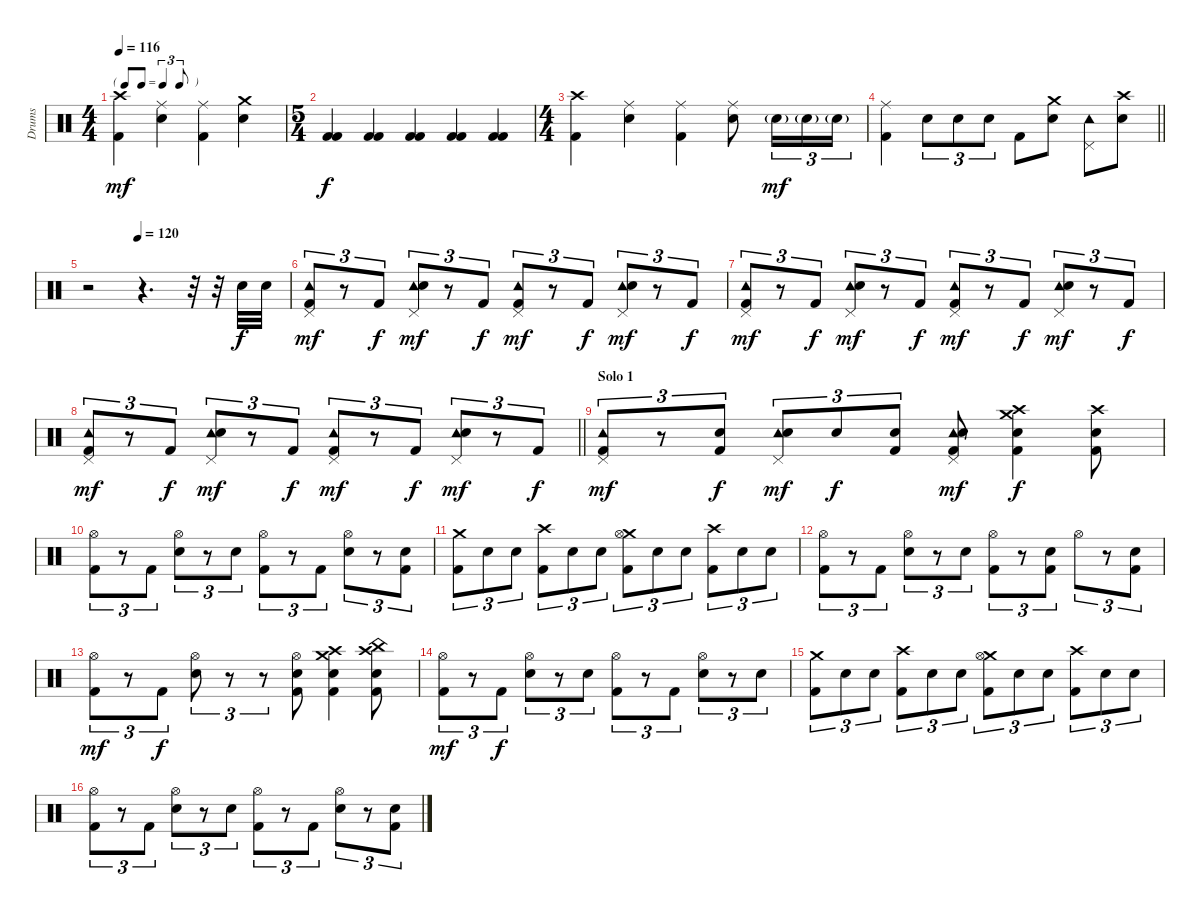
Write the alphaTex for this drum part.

\track ("Drums" "Drums") {instrument percussion}
\staff {score}
\articulation defaults
\ts (4 4)
\tf triplet8th
\tempo 116
\clef neutral
\ks c
("Crash high (hit)" "Kick (hit) 2").4{dy mf} ("Ride (middle)" "Snare (hit) 2").4 ("Ride (middle)" "Kick (hit) 2").4 ("Crash medium (hit)" "Snare (hit) 2").4 |
\ts (5 4)
("Kick (hit) 2" "Kick (hit) 2").4{dy f} ("Kick (hit) 2" "Kick (hit) 2").4 ("Kick (hit) 2" "Kick (hit) 2").4 ("Kick (hit) 2" "Kick (hit) 2").4 ("Kick (hit) 2" "Kick (hit) 2").4 |
\ts (4 4)
("Crash high (hit)" "Kick (hit) 2").4 ("Ride (middle)" "Snare (hit) 2").4 ("Ride (middle)" "Kick (hit) 2").4 ("Ride (middle)" "Snare (hit) 2").8 "Snare (hit) 2"{g}.16{tu (3 2) dy mf} "Snare (hit) 2"{g}.16{tu (3 2)} "Snare (hit) 2"{g}.16{tu (3 2)} |
\barLineRight lightlight
("Ride (middle)" "Kick (hit) 2").4 "Snare (hit) 2".8{tu (3 2)} "Snare (hit) 2".8{tu (3 2)} "Snare (hit) 2".8{tu (3 2)} "Kick (hit) 2".8 ("Crash medium (hit)" "Snare (hit) 2").8 ("Tambourine (hit)" "Pedal Hi-Hat (hit)").8 ("Crash high (hit)" "Snare (hit) 2").8 |
\tempo (120 0.25)
r.2 r.4{d} r.32 r.32 "Snare (hit) 2".32{dy f} "Snare (hit) 2".32 |
("Tambourine (hit)" "Pedal Hi-Hat (hit)" "Kick (hit) 2").8{tu (3 2) dy mf} r.8{tu (3 2)} "Kick (hit) 2".8{tu (3 2) dy f} ("Tambourine (hit)" "Pedal Hi-Hat (hit)" "Snare (hit) 2").8{tu (3 2) dy mf} r.8{tu (3 2)} "Kick (hit) 2".8{tu (3 2) dy f} ("Tambourine (hit)" "Pedal Hi-Hat (hit)" "Kick (hit) 2").8{tu (3 2) dy mf} r.8{tu (3 2)} "Kick (hit) 2".8{tu (3 2) dy f} ("Tambourine (hit)" "Pedal Hi-Hat (hit)" "Snare (hit) 2").8{tu (3 2) dy mf} r.8{tu (3 2)} "Kick (hit) 2".8{tu (3 2) dy f} |
("Tambourine (hit)" "Pedal Hi-Hat (hit)" "Kick (hit) 2").8{tu (3 2) dy mf} r.8{tu (3 2)} "Kick (hit) 2".8{tu (3 2) dy f} ("Tambourine (hit)" "Pedal Hi-Hat (hit)" "Snare (hit) 2").8{tu (3 2) dy mf} r.8{tu (3 2)} "Kick (hit) 2".8{tu (3 2) dy f} ("Tambourine (hit)" "Pedal Hi-Hat (hit)" "Kick (hit) 2").8{tu (3 2) dy mf} r.8{tu (3 2)} "Kick (hit) 2".8{tu (3 2) dy f} ("Tambourine (hit)" "Pedal Hi-Hat (hit)" "Snare (hit) 2").8{tu (3 2) dy mf} r.8{tu (3 2)} "Kick (hit) 2".8{tu (3 2) dy f} |
\barLineRight lightlight
("Tambourine (hit)" "Pedal Hi-Hat (hit)" "Kick (hit) 2").8{tu (3 2) dy mf} r.8{tu (3 2)} "Kick (hit) 2".8{tu (3 2) dy f} ("Tambourine (hit)" "Pedal Hi-Hat (hit)" "Snare (hit) 2").8{tu (3 2) dy mf} r.8{tu (3 2)} "Kick (hit) 2".8{tu (3 2) dy f} ("Tambourine (hit)" "Pedal Hi-Hat (hit)" "Kick (hit) 2").8{tu (3 2) dy mf} r.8{tu (3 2)} "Kick (hit) 2".8{tu (3 2) dy f} ("Tambourine (hit)" "Pedal Hi-Hat (hit)" "Snare (hit) 2").8{tu (3 2) dy mf} r.8{tu (3 2)} "Kick (hit) 2".8{tu (3 2) dy f} |
\section ("" "Solo 1")
("Tambourine (hit)" "Pedal Hi-Hat (hit)" "Kick (hit) 2").8{tu (3 2) dy mf} r.8{tu (3 2)} ("Snare (hit) 2" "Kick (hit) 2").8{tu (3 2) dy f} ("Tambourine (hit)" "Pedal Hi-Hat (hit)" "Snare (hit) 2").8{tu (3 2) dy mf} "Snare (hit) 2".8{tu (3 2) dy f} ("Snare (hit) 2" "Kick (hit) 2").8{tu (3 2)} ("Tambourine (hit)" "Pedal Hi-Hat (hit)" "Snare (hit) 2" "Kick (hit) 2").8{dy mf} ("Crash medium (hit)" "Crash high (hit)" "Snare (hit) 2" "Kick (hit) 2").4{dy f} ("Crash high (hit)" "Snare (hit) 2" "Kick (hit) 2").8 |
("Hi-Hat (open)" "Kick (hit) 2").8{tu (3 2)} r.8{tu (3 2)} "Kick (hit) 2".8{tu (3 2)} ("Hi-Hat (open)" "Snare (hit) 2").8{tu (3 2)} r.8{tu (3 2)} "Snare (hit) 2".8{tu (3 2)} ("Hi-Hat (open)" "Kick (hit) 2").8{tu (3 2)} r.8{tu (3 2)} "Kick (hit) 2".8{tu (3 2)} ("Hi-Hat (open)" "Snare (hit) 2").8{tu (3 2)} r.8{tu (3 2)} ("Snare (hit) 2" "Kick (hit) 2").8{tu (3 2)} |
("Crash medium (hit)" "Kick (hit) 2").8{tu (3 2)} "Snare (hit) 2".8{tu (3 2)} "Snare (hit) 2".8{tu (3 2)} ("Crash high (hit)" "Kick (hit) 2").8{tu (3 2)} "Snare (hit) 2".8{tu (3 2)} "Snare (hit) 2".8{tu (3 2)} ("Crash medium (hit)" "Hi-Hat (open)" "Kick (hit) 2").8{tu (3 2)} "Snare (hit) 2".8{tu (3 2)} "Snare (hit) 2".8{tu (3 2)} ("Crash high (hit)" "Kick (hit) 2").8{tu (3 2)} "Snare (hit) 2".8{tu (3 2)} "Snare (hit) 2".8{tu (3 2)} |
("Hi-Hat (open)" "Kick (hit) 2").8{tu (3 2)} r.8{tu (3 2)} "Kick (hit) 2".8{tu (3 2)} ("Hi-Hat (open)" "Snare (hit) 2").8{tu (3 2)} r.8{tu (3 2)} "Snare (hit) 2".8{tu (3 2)} ("Hi-Hat (open)" "Kick (hit) 2").8{tu (3 2)} r.8{tu (3 2)} ("Snare (hit) 2" "Kick (hit) 2").8{tu (3 2)} "Hi-Hat (open)".8{tu (3 2)} r.8{tu (3 2)} ("Snare (hit) 2" "Kick (hit) 2").8{tu (3 2)} |
("Hi-Hat (open)" "Kick (hit) 2").8{tu (3 2) dy mf} r.8{tu (3 2)} "Kick (hit) 2".8{tu (3 2) dy f} ("Hi-Hat (open)" "Snare (hit) 2").8{tu (3 2)} r.8{tu (3 2)} r.8{tu (3 2)} ("Hi-Hat (open)" "Snare (hit) 2" "Kick (hit) 2").8 ("Crash medium (hit)" "Crash high (hit)" "Snare (hit) 2" "Kick (hit) 2").4 ("China (hit)" "Crash high (hit)" "Snare (hit) 2" "Kick (hit) 2").8 |
("Hi-Hat (open)" "Kick (hit) 2").8{tu (3 2) dy mf} r.8{tu (3 2)} "Kick (hit) 2".8{tu (3 2) dy f} ("Hi-Hat (open)" "Snare (hit) 2").8{tu (3 2)} r.8{tu (3 2)} "Snare (hit) 2".8{tu (3 2)} ("Hi-Hat (open)" "Kick (hit) 2").8{tu (3 2)} r.8{tu (3 2)} "Kick (hit) 2".8{tu (3 2)} ("Hi-Hat (open)" "Snare (hit) 2").8{tu (3 2)} r.8{tu (3 2)} "Snare (hit) 2".8{tu (3 2)} |
("Crash medium (hit)" "Kick (hit) 2").8{tu (3 2)} "Snare (hit) 2".8{tu (3 2)} "Snare (hit) 2".8{tu (3 2)} ("Crash high (hit)" "Kick (hit) 2").8{tu (3 2)} "Snare (hit) 2".8{tu (3 2)} "Snare (hit) 2".8{tu (3 2)} ("Crash medium (hit)" "Hi-Hat (open)" "Kick (hit) 2").8{tu (3 2)} "Snare (hit) 2".8{tu (3 2)} "Snare (hit) 2".8{tu (3 2)} ("Crash high (hit)" "Kick (hit) 2").8{tu (3 2)} "Snare (hit) 2".8{tu (3 2)} "Snare (hit) 2".8{tu (3 2)} |
("Hi-Hat (open)" "Kick (hit) 2").8{tu (3 2)} r.8{tu (3 2)} "Kick (hit) 2".8{tu (3 2)} ("Hi-Hat (open)" "Snare (hit) 2").8{tu (3 2)} r.8{tu (3 2)} "Snare (hit) 2".8{tu (3 2)} ("Hi-Hat (open)" "Kick (hit) 2").8{tu (3 2)} r.8{tu (3 2)} "Kick (hit) 2".8{tu (3 2)} ("Hi-Hat (open)" "Snare (hit) 2").8{tu (3 2)} r.8{tu (3 2)} ("Snare (hit) 2" "Kick (hit) 2").8{tu (3 2)}
